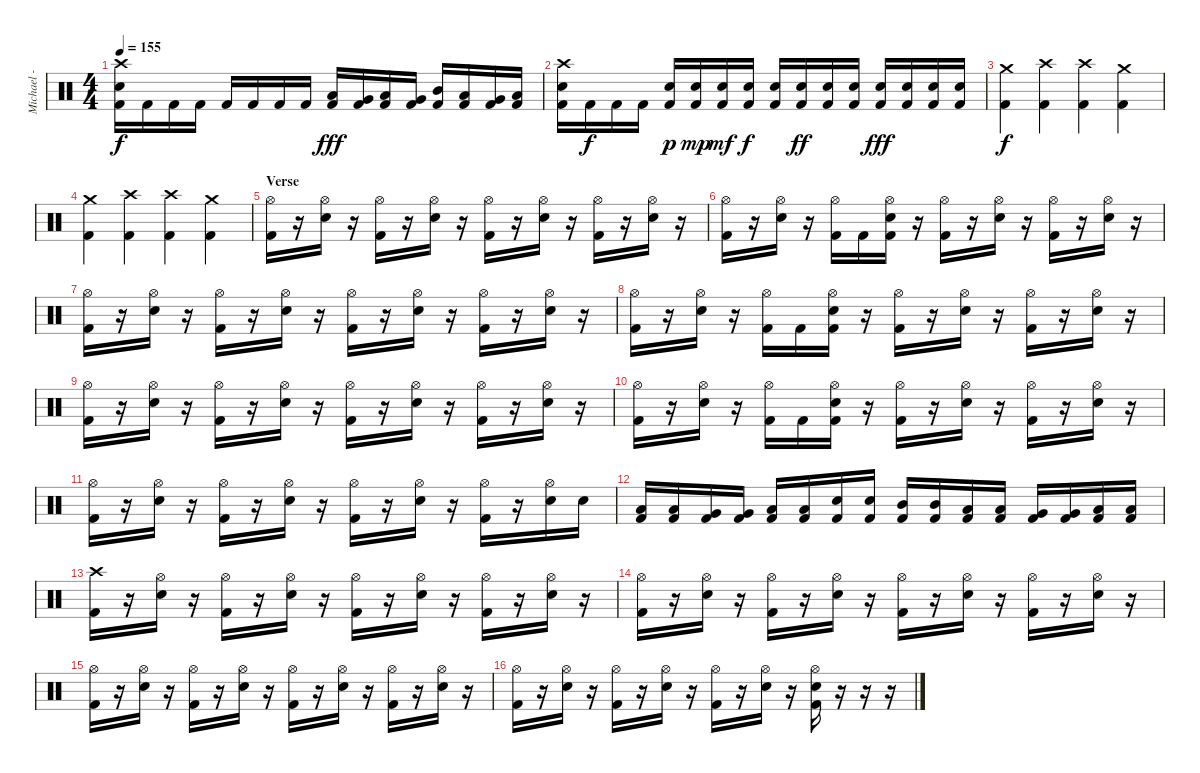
\track ("Michael - Drums" "Michael - ") {instrument percussion}
\staff {score}
\articulation defaults
\ts (4 4)
\tempo 155
\clef neutral
\ks c
("Crash high (hit)" "Electric Snare (hit)" "Kick (hit) 2").16{dy f} "Kick (hit) 2".16 "Kick (hit) 2".16 "Kick (hit) 2".16 "Kick (hit) 2".16 "Kick (hit) 2".16 "Kick (hit) 2".16 "Kick (hit) 2".16 ("Low Tom (hit)" "Kick (hit) 2").16{dy fff} ("Very Low Tom (hit)" "Kick (hit) 2").16 ("Low Floor Tom (hit)" "Kick (hit) 2").16 ("Very Low Tom (hit)" "Kick (hit) 2").16 ("Mid Tom (hit)" "Kick (hit) 2").16 ("Low Tom (hit)" "Kick (hit) 2").16 ("Very Low Tom (hit)" "Kick (hit) 2").16 ("Low Floor Tom (hit)" "Kick (hit) 2").16 |
("Crash high (hit)" "Electric Snare (hit)" "Kick (hit) 2").16 "Kick (hit) 2".16{dy f} "Kick (hit) 2".16 "Kick (hit) 2".16 ("Electric Snare (hit)" "Kick (hit) 2").16{dy p} ("Electric Snare (hit)" "Kick (hit) 2").16{dy mp} ("Electric Snare (hit)" "Kick (hit) 2").16{dy mf} ("Electric Snare (hit)" "Kick (hit) 2").16{dy f} ("Electric Snare (hit)" "Kick (hit) 2").16 ("Electric Snare (hit)" "Kick (hit) 2").16{dy ff} ("Electric Snare (hit)" "Kick (hit) 2").16 ("Electric Snare (hit)" "Kick (hit) 2").16 ("Electric Snare (hit)" "Kick (hit) 2").16{dy fff} ("Electric Snare (hit)" "Kick (hit) 2").16 ("Electric Snare (hit)" "Kick (hit) 2").16 ("Electric Snare (hit)" "Kick (hit) 2").16 |
("Crash medium (hit)" "Kick (hit) 2").4{dy f} ("Crash high (hit)" "Kick (hit) 2").4 ("Crash high (hit)" "Kick (hit) 2").4 ("Crash medium (hit)" "Kick (hit) 2").4 |
("Crash medium (hit)" "Kick (hit) 2").4 ("Crash high (hit)" "Kick (hit) 2").4 ("Crash high (hit)" "Kick (hit) 2").4 ("Crash medium (hit)" "Kick (hit) 2").4 |
\section ("" "Verse")
("Hi-Hat (open)" "Kick (hit) 2").16 r.16 ("Hi-Hat (open)" "Electric Snare (hit)").16 r.16 ("Hi-Hat (open)" "Kick (hit) 2").16 r.16 ("Hi-Hat (open)" "Electric Snare (hit)").16 r.16 ("Hi-Hat (open)" "Kick (hit) 2").16 r.16 ("Hi-Hat (open)" "Electric Snare (hit)").16 r.16 ("Hi-Hat (open)" "Kick (hit) 2").16 r.16 ("Hi-Hat (open)" "Electric Snare (hit)").16 r.16 |
("Hi-Hat (open)" "Kick (hit) 2").16 r.16 ("Hi-Hat (open)" "Electric Snare (hit)").16 r.16 ("Hi-Hat (open)" "Kick (hit) 2").16 "Kick (hit) 2".16 ("Hi-Hat (open)" "Electric Snare (hit)" "Kick (hit) 2").16 r.16 ("Hi-Hat (open)" "Kick (hit) 2").16 r.16 ("Hi-Hat (open)" "Electric Snare (hit)").16 r.16 ("Hi-Hat (open)" "Kick (hit) 2").16 r.16 ("Hi-Hat (open)" "Electric Snare (hit)").16 r.16 |
("Hi-Hat (open)" "Kick (hit) 2").16 r.16 ("Hi-Hat (open)" "Electric Snare (hit)").16 r.16 ("Hi-Hat (open)" "Kick (hit) 2").16 r.16 ("Hi-Hat (open)" "Electric Snare (hit)").16 r.16 ("Hi-Hat (open)" "Kick (hit) 2").16 r.16 ("Hi-Hat (open)" "Electric Snare (hit)").16 r.16 ("Hi-Hat (open)" "Kick (hit) 2").16 r.16 ("Hi-Hat (open)" "Electric Snare (hit)").16 r.16 |
("Hi-Hat (open)" "Kick (hit) 2").16 r.16 ("Hi-Hat (open)" "Electric Snare (hit)").16 r.16 ("Hi-Hat (open)" "Kick (hit) 2").16 "Kick (hit) 2".16 ("Hi-Hat (open)" "Electric Snare (hit)" "Kick (hit) 2").16 r.16 ("Hi-Hat (open)" "Kick (hit) 2").16 r.16 ("Hi-Hat (open)" "Electric Snare (hit)").16 r.16 ("Hi-Hat (open)" "Kick (hit) 2").16 r.16 ("Hi-Hat (open)" "Electric Snare (hit)").16 r.16 |
("Hi-Hat (open)" "Kick (hit) 2").16 r.16 ("Hi-Hat (open)" "Electric Snare (hit)").16 r.16 ("Hi-Hat (open)" "Kick (hit) 2").16 r.16 ("Hi-Hat (open)" "Electric Snare (hit)").16 r.16 ("Hi-Hat (open)" "Kick (hit) 2").16 r.16 ("Hi-Hat (open)" "Electric Snare (hit)").16 r.16 ("Hi-Hat (open)" "Kick (hit) 2").16 r.16 ("Hi-Hat (open)" "Electric Snare (hit)").16 r.16 |
("Hi-Hat (open)" "Kick (hit) 2").16 r.16 ("Hi-Hat (open)" "Electric Snare (hit)").16 r.16 ("Hi-Hat (open)" "Kick (hit) 2").16 "Kick (hit) 2".16 ("Hi-Hat (open)" "Electric Snare (hit)" "Kick (hit) 2").16 r.16 ("Hi-Hat (open)" "Kick (hit) 2").16 r.16 ("Hi-Hat (open)" "Electric Snare (hit)").16 r.16 ("Hi-Hat (open)" "Kick (hit) 2").16 r.16 ("Hi-Hat (open)" "Electric Snare (hit)").16 r.16 |
("Hi-Hat (open)" "Kick (hit) 2").16 r.16 ("Hi-Hat (open)" "Electric Snare (hit)").16 r.16 ("Hi-Hat (open)" "Kick (hit) 2").16 r.16 ("Hi-Hat (open)" "Electric Snare (hit)").16 r.16 ("Hi-Hat (open)" "Kick (hit) 2").16 r.16 ("Hi-Hat (open)" "Electric Snare (hit)").16 r.16 ("Hi-Hat (open)" "Kick (hit) 2").16 r.16 ("Hi-Hat (open)" "Electric Snare (hit)").16 "Electric Snare (hit)".16 |
("Low Tom (hit)" "Kick (hit) 2").16 ("Low Tom (hit)" "Kick (hit) 2").16 ("Very Low Tom (hit)" "Kick (hit) 2").16 ("Very Low Tom (hit)" "Kick (hit) 2").16 ("Low Floor Tom (hit)" "Kick (hit) 2").16 ("Low Floor Tom (hit)" "Kick (hit) 2").16 ("Electric Snare (hit)" "Kick (hit) 2").16 ("Electric Snare (hit)" "Kick (hit) 2").16 ("Mid Tom (hit)" "Kick (hit) 2").16 ("Mid Tom (hit)" "Kick (hit) 2").16 ("Low Tom (hit)" "Kick (hit) 2").16 ("Low Tom (hit)" "Kick (hit) 2").16 ("Very Low Tom (hit)" "Kick (hit) 2").16 ("Very Low Tom (hit)" "Kick (hit) 2").16 ("Low Floor Tom (hit)" "Kick (hit) 2").16 ("Low Floor Tom (hit)" "Kick (hit) 2").16 |
("Crash high (hit)" "Kick (hit) 2").16 r.16 ("Hi-Hat (open)" "Electric Snare (hit)").16 r.16 ("Hi-Hat (open)" "Kick (hit) 2").16 r.16 ("Hi-Hat (open)" "Electric Snare (hit)").16 r.16 ("Hi-Hat (open)" "Kick (hit) 2").16 r.16 ("Hi-Hat (open)" "Electric Snare (hit)").16 r.16 ("Hi-Hat (open)" "Kick (hit) 2").16 r.16 ("Hi-Hat (open)" "Electric Snare (hit)").16 r.16 |
("Hi-Hat (open)" "Kick (hit) 2").16 r.16 ("Hi-Hat (open)" "Electric Snare (hit)").16 r.16 ("Hi-Hat (open)" "Kick (hit) 2").16 r.16 ("Hi-Hat (open)" "Electric Snare (hit)").16 r.16 ("Hi-Hat (open)" "Kick (hit) 2").16 r.16 ("Hi-Hat (open)" "Electric Snare (hit)").16 r.16 ("Hi-Hat (open)" "Kick (hit) 2").16 r.16 ("Hi-Hat (open)" "Electric Snare (hit)").16 r.16 |
("Hi-Hat (open)" "Kick (hit) 2").16 r.16 ("Hi-Hat (open)" "Electric Snare (hit)").16 r.16 ("Hi-Hat (open)" "Kick (hit) 2").16 r.16 ("Hi-Hat (open)" "Electric Snare (hit)").16 r.16 ("Hi-Hat (open)" "Kick (hit) 2").16 r.16 ("Hi-Hat (open)" "Electric Snare (hit)").16 r.16 ("Hi-Hat (open)" "Kick (hit) 2").16 r.16 ("Hi-Hat (open)" "Electric Snare (hit)").16 r.16 |
("Hi-Hat (open)" "Kick (hit) 2").16 r.16 ("Hi-Hat (open)" "Electric Snare (hit)").16 r.16 ("Hi-Hat (open)" "Kick (hit) 2").16 r.16 ("Hi-Hat (open)" "Electric Snare (hit)").16 r.16 ("Hi-Hat (open)" "Kick (hit) 2").16 r.16 ("Hi-Hat (open)" "Electric Snare (hit)").16 r.16 ("Hi-Hat (open)" "Electric Snare (hit)" "Kick (hit) 2").16 r.16 r.16 r.16
